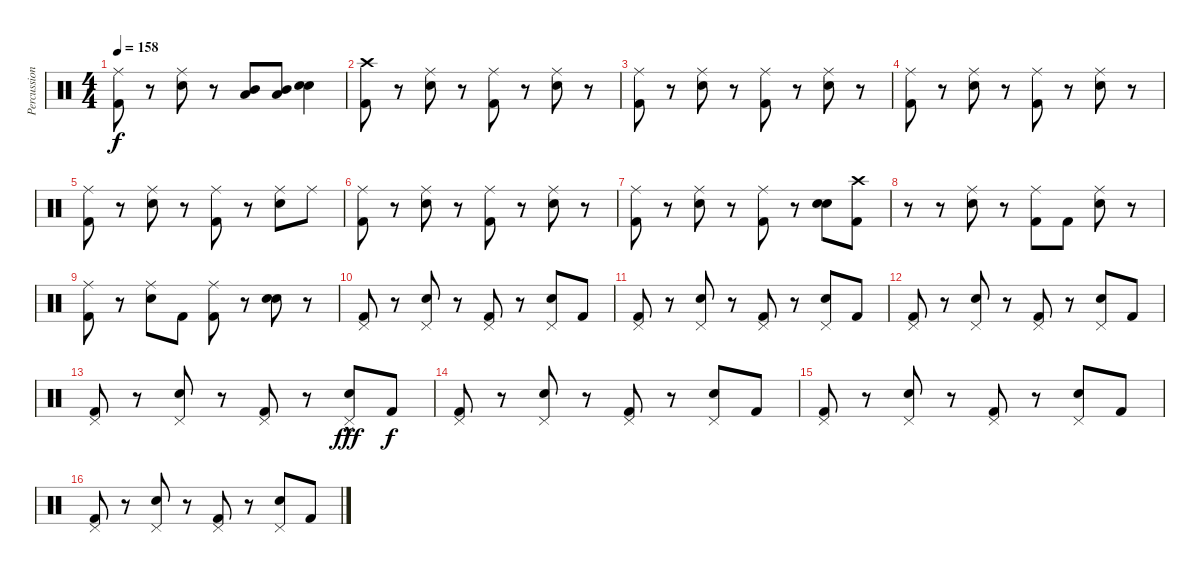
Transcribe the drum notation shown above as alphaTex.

\track ("Percussion" "Percussion") {instrument percussion bank 78}
\staff {score}
\articulation defaults
\ts (4 4)
\tempo 158
\clef neutral
\ks c
("Ride (middle)" "Kick (hit) 2").8{dy f} r.8 ("Ride (middle)" "Electric Snare (hit)").8 r.8 ("Mid Tom (hit)" "Low Tom (hit)").8 ("Mid Tom (hit)" "Low Tom (hit)").8 ("Electric Snare (hit)" "Electric Snare (hit)").4 |
("Crash high (hit)" "Kick (hit) 2").8 r.8 ("Ride (middle)" "Electric Snare (hit)").8 r.8 ("Ride (middle)" "Kick (hit) 2").8 r.8 ("Ride (middle)" "Electric Snare (hit)").8 r.8 |
("Ride (middle)" "Kick (hit) 2").8 r.8 ("Ride (middle)" "Electric Snare (hit)").8 r.8 ("Ride (middle)" "Kick (hit) 2").8 r.8 ("Ride (middle)" "Electric Snare (hit)").8 r.8 |
("Ride (middle)" "Kick (hit) 2").8 r.8 ("Ride (middle)" "Electric Snare (hit)").8 r.8 ("Ride (middle)" "Kick (hit) 2").8 r.8 ("Ride (middle)" "Electric Snare (hit)").8 r.8 |
("Ride (middle)" "Kick (hit) 2").8 r.8 ("Ride (middle)" "Electric Snare (hit)").8 r.8 ("Ride (middle)" "Kick (hit) 2").8 r.8 ("Ride (middle)" "Electric Snare (hit)").8 "Ride (middle)".8 |
("Ride (middle)" "Kick (hit) 2").8 r.8 ("Ride (middle)" "Electric Snare (hit)").8 r.8 ("Ride (middle)" "Kick (hit) 2").8 r.8 ("Ride (middle)" "Electric Snare (hit)").8 r.8 |
("Ride (middle)" "Kick (hit) 2").8 r.8 ("Ride (middle)" "Electric Snare (hit)").8 r.8 ("Ride (middle)" "Kick (hit) 2").8 r.8 ("Electric Snare (hit)" "Electric Snare (hit)").8 ("Crash high (hit)" "Kick (hit) 2").8 |
r.8 r.8 ("Ride (middle)" "Electric Snare (hit)").8 r.8 ("Ride (middle)" "Kick (hit) 2").8 "Kick (hit) 2".8 ("Ride (middle)" "Electric Snare (hit)").8 r.8 |
("Ride (middle)" "Kick (hit) 2").8 r.8 ("Ride (middle)" "Electric Snare (hit)").8 "Kick (hit) 2".8 ("Ride (middle)" "Kick (hit) 2").8 r.8 ("Electric Snare (hit)" "Electric Snare (hit)").8 r.8 |
("Pedal Hi-Hat (hit)" "Kick (hit) 2").8 r.8 ("Pedal Hi-Hat (hit)" "Electric Snare (hit)").8 r.8 ("Pedal Hi-Hat (hit)" "Kick (hit) 2").8 r.8 ("Pedal Hi-Hat (hit)" "Electric Snare (hit)").8 "Kick (hit) 2".8 |
("Pedal Hi-Hat (hit)" "Kick (hit) 2").8 r.8 ("Pedal Hi-Hat (hit)" "Electric Snare (hit)").8 r.8 ("Pedal Hi-Hat (hit)" "Kick (hit) 2").8 r.8 ("Pedal Hi-Hat (hit)" "Electric Snare (hit)").8 "Kick (hit) 2".8 |
("Pedal Hi-Hat (hit)" "Kick (hit) 2").8 r.8 ("Pedal Hi-Hat (hit)" "Electric Snare (hit)").8 r.8 ("Pedal Hi-Hat (hit)" "Kick (hit) 2").8 r.8 ("Pedal Hi-Hat (hit)" "Electric Snare (hit)").8 "Kick (hit) 2".8 |
("Pedal Hi-Hat (hit)" "Kick (hit) 2").8 r.8 ("Pedal Hi-Hat (hit)" "Electric Snare (hit)").8 r.8 ("Pedal Hi-Hat (hit)" "Kick (hit) 2").8 r.8 ("Pedal Hi-Hat (hit)"{hac} "Electric Snare (hit)").8{dy fff} "Kick (hit) 2".8{dy f} |
("Pedal Hi-Hat (hit)" "Kick (hit) 2").8 r.8 ("Pedal Hi-Hat (hit)" "Electric Snare (hit)").8 r.8 ("Pedal Hi-Hat (hit)" "Kick (hit) 2").8 r.8 ("Pedal Hi-Hat (hit)" "Electric Snare (hit)").8 "Kick (hit) 2".8 |
("Pedal Hi-Hat (hit)" "Kick (hit) 2").8 r.8 ("Pedal Hi-Hat (hit)" "Electric Snare (hit)").8 r.8 ("Pedal Hi-Hat (hit)" "Kick (hit) 2").8 r.8 ("Pedal Hi-Hat (hit)" "Electric Snare (hit)").8 "Kick (hit) 2".8 |
("Pedal Hi-Hat (hit)" "Kick (hit) 2").8 r.8 ("Pedal Hi-Hat (hit)" "Electric Snare (hit)").8 r.8 ("Pedal Hi-Hat (hit)" "Kick (hit) 2").8 r.8 ("Pedal Hi-Hat (hit)" "Electric Snare (hit)").8 "Kick (hit) 2".8
